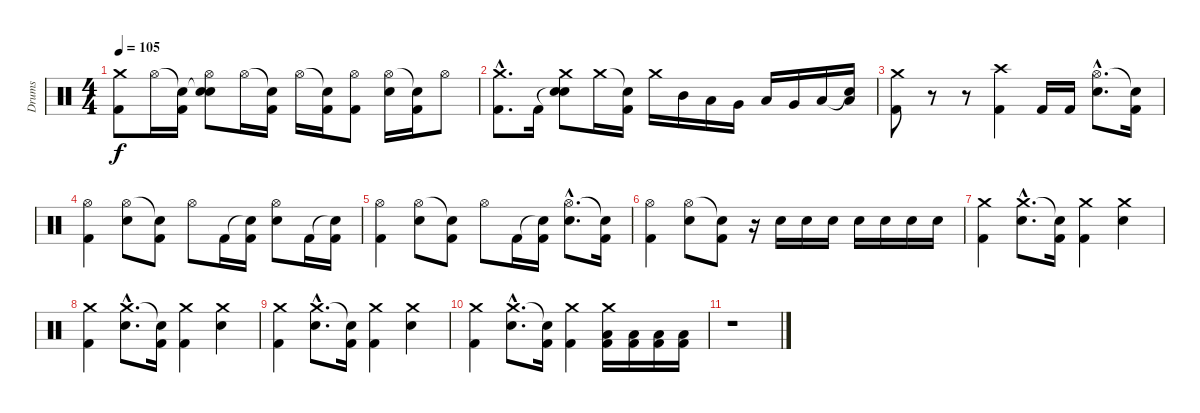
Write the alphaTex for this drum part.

\track ("Drums" "Drums") {instrument percussion}
\staff {score}
\articulation defaults
\ts (4 4)
\tempo 105
\clef neutral
\ks c
("Crash medium (hit)" "Kick (hit) 2").8{dy f} "Hi-Hat (open)".16 ("Snare (hit)"{t} "Kick (hit) 2").16 ("Snare (hit)"{t} "Hi-Hat (open)" "Electric Snare (hit)").8 "Hi-Hat (open)".16 ("Snare (hit)"{t} "Kick (hit) 2").16 "Hi-Hat (open)".16 ("Snare (hit)"{t} "Kick (hit) 2").16 ("Hi-Hat (open)" "Kick (hit) 2").8 ("Hi-Hat (open)" "Electric Snare (hit)").16 ("Snare (hit)"{t} "Kick (hit) 2").16 "Hi-Hat (open)".8 |
("Crash medium (hit)"{hac} "Kick (hit) 2"{hac}).8{d} "Kick (hit) 2".16 ("Snare (hit)"{t} "Crash medium (hit)" "Electric Snare (hit)").8 "Crash medium (hit)".16 ("Snare (hit)"{t} "Kick (hit) 2").16 "Crash medium (hit)".16 "Mid Tom (hit)".16 "Low Tom (hit)".16 "Very Low Tom (hit)".16 "Low Tom (hit)".16 "Very Low Tom (hit)".16 "Low Floor Tom (hit)".16 ("Snare (hit)"{t} "Low Floor Tom (hit)").16 |
("Crash medium (hit)" "Kick (hit) 2").8 r.8 r.8 ("Crash high (hit)" "Kick (hit) 2").4 "Kick (hit) 2".16 "Kick (hit) 2".16 ("Hi-Hat (open)"{hac} "Electric Snare (hit)"{hac}).8{d} ("Snare (hit)"{t} "Kick (hit) 2").16 |
("Hi-Hat (open)" "Kick (hit) 2").4 ("Hi-Hat (open)" "Electric Snare (hit)").8 ("Snare (hit)"{t} "Kick (hit) 2").8 "Hi-Hat (open)".8 "Kick (hit) 2".16 ("Snare (hit)"{t} "Kick (hit) 2").16 ("Hi-Hat (open)" "Electric Snare (hit)").8 "Kick (hit) 2".16 ("Snare (hit)"{t} "Kick (hit) 2").16 |
("Hi-Hat (open)" "Kick (hit) 2").4 ("Hi-Hat (open)" "Electric Snare (hit)").8 ("Snare (hit)"{t} "Kick (hit) 2").8 "Hi-Hat (open)".8 "Kick (hit) 2".16 ("Snare (hit)"{t} "Kick (hit) 2").16 ("Hi-Hat (open)"{hac} "Electric Snare (hit)"{hac}).8{d} ("Snare (hit)"{t} "Kick (hit) 2").16 |
("Hi-Hat (open)" "Kick (hit) 2").4 ("Hi-Hat (open)" "Electric Snare (hit)").8 ("Snare (hit)"{t} "Kick (hit) 2").8 r.16 "Electric Snare (hit)".16 "Electric Snare (hit)".16 "Electric Snare (hit)".16 "Electric Snare (hit)".16 "Electric Snare (hit)".16 "Electric Snare (hit)".16 "Electric Snare (hit)".16 |
("Crash medium (hit)" "Kick (hit) 2").4 ("Crash medium (hit)"{hac} "Electric Snare (hit)"{hac}).8{d} ("Snare (hit)"{t} "Kick (hit) 2").16 ("Crash medium (hit)" "Kick (hit) 2").4 ("Crash medium (hit)" "Electric Snare (hit)").4 |
("Crash medium (hit)" "Kick (hit) 2").4 ("Crash medium (hit)"{hac} "Electric Snare (hit)"{hac}).8{d} ("Snare (hit)"{t} "Kick (hit) 2").16 ("Crash medium (hit)" "Kick (hit) 2").4 ("Crash medium (hit)" "Electric Snare (hit)").4 |
("Crash medium (hit)" "Kick (hit) 2").4 ("Crash medium (hit)"{hac} "Electric Snare (hit)"{hac}).8{d} ("Snare (hit)"{t} "Kick (hit) 2").16 ("Crash medium (hit)" "Kick (hit) 2").4 ("Crash medium (hit)" "Electric Snare (hit)").4 |
("Crash medium (hit)" "Kick (hit) 2").4 ("Crash medium (hit)"{hac} "Electric Snare (hit)"{hac}).8{d} ("Snare (hit)"{t} "Kick (hit) 2").16 ("Crash medium (hit)" "Kick (hit) 2").4 ("Crash medium (hit)" "Low Floor Tom (hit)" "Kick (hit) 2").16 ("Low Floor Tom (hit)" "Kick (hit) 2").16 ("Low Floor Tom (hit)" "Kick (hit) 2").16 ("Low Floor Tom (hit)" "Kick (hit) 2").16 |
r.1
